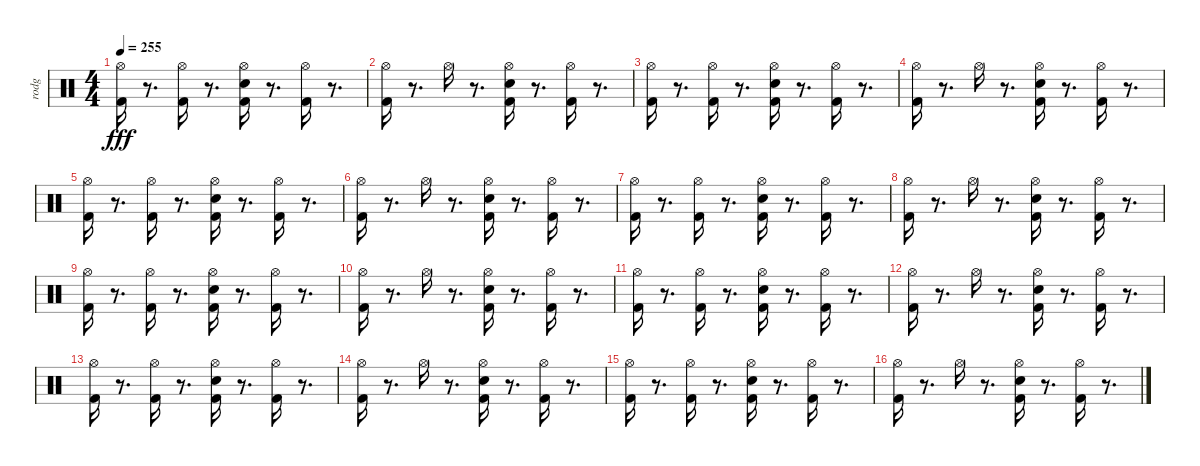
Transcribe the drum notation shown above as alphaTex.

\track ("rodg" "rodg") {instrument percussion}
\staff {score}
\articulation defaults
\ts (4 4)
\tempo 255
\clef neutral
\ks c
("Hi-Hat (open)" "Kick (hit) 2").16{dy fff} r.8{d} ("Kick (hit) 2" "Hi-Hat (open)").16 r.8{d} ("Kick (hit) 2" "Electric Snare (hit)" "Hi-Hat (open)").16 r.8{d} ("Kick (hit) 2" "Hi-Hat (open)").16 r.8{d} |
("Kick (hit) 2" "Hi-Hat (open)").16 r.8{d} "Hi-Hat (open)".16 r.8{d} ("Kick (hit) 2" "Electric Snare (hit)" "Hi-Hat (open)").16 r.8{d} ("Kick (hit) 2" "Hi-Hat (open)").16 r.8{d} |
("Hi-Hat (open)" "Kick (hit) 2").16 r.8{d} ("Kick (hit) 2" "Hi-Hat (open)").16 r.8{d} ("Kick (hit) 2" "Electric Snare (hit)" "Hi-Hat (open)").16 r.8{d} ("Kick (hit) 2" "Hi-Hat (open)").16 r.8{d} |
("Kick (hit) 2" "Hi-Hat (open)").16 r.8{d} "Hi-Hat (open)".16 r.8{d} ("Kick (hit) 2" "Electric Snare (hit)" "Hi-Hat (open)").16 r.8{d} ("Kick (hit) 2" "Hi-Hat (open)").16 r.8{d} |
("Hi-Hat (open)" "Kick (hit) 2").16 r.8{d} ("Kick (hit) 2" "Hi-Hat (open)").16 r.8{d} ("Kick (hit) 2" "Electric Snare (hit)" "Hi-Hat (open)").16 r.8{d} ("Kick (hit) 2" "Hi-Hat (open)").16 r.8{d} |
("Kick (hit) 2" "Hi-Hat (open)").16 r.8{d} "Hi-Hat (open)".16 r.8{d} ("Kick (hit) 2" "Electric Snare (hit)" "Hi-Hat (open)").16 r.8{d} ("Kick (hit) 2" "Hi-Hat (open)").16 r.8{d} |
("Hi-Hat (open)" "Kick (hit) 2").16 r.8{d} ("Kick (hit) 2" "Hi-Hat (open)").16 r.8{d} ("Kick (hit) 2" "Electric Snare (hit)" "Hi-Hat (open)").16 r.8{d} ("Kick (hit) 2" "Hi-Hat (open)").16 r.8{d} |
("Kick (hit) 2" "Hi-Hat (open)").16 r.8{d} "Hi-Hat (open)".16 r.8{d} ("Kick (hit) 2" "Electric Snare (hit)" "Hi-Hat (open)").16 r.8{d} ("Kick (hit) 2" "Hi-Hat (open)").16 r.8{d} |
("Hi-Hat (open)" "Kick (hit) 2").16 r.8{d} ("Kick (hit) 2" "Hi-Hat (open)").16 r.8{d} ("Kick (hit) 2" "Electric Snare (hit)" "Hi-Hat (open)").16 r.8{d} ("Kick (hit) 2" "Hi-Hat (open)").16 r.8{d} |
("Kick (hit) 2" "Hi-Hat (open)").16 r.8{d} "Hi-Hat (open)".16 r.8{d} ("Kick (hit) 2" "Electric Snare (hit)" "Hi-Hat (open)").16 r.8{d} ("Kick (hit) 2" "Hi-Hat (open)").16 r.8{d} |
("Hi-Hat (open)" "Kick (hit) 2").16 r.8{d} ("Kick (hit) 2" "Hi-Hat (open)").16 r.8{d} ("Kick (hit) 2" "Electric Snare (hit)" "Hi-Hat (open)").16 r.8{d} ("Kick (hit) 2" "Hi-Hat (open)").16 r.8{d} |
("Kick (hit) 2" "Hi-Hat (open)").16 r.8{d} "Hi-Hat (open)".16 r.8{d} ("Kick (hit) 2" "Electric Snare (hit)" "Hi-Hat (open)").16 r.8{d} ("Kick (hit) 2" "Hi-Hat (open)").16 r.8{d} |
("Hi-Hat (open)" "Kick (hit) 2").16 r.8{d} ("Kick (hit) 2" "Hi-Hat (open)").16 r.8{d} ("Kick (hit) 2" "Electric Snare (hit)" "Hi-Hat (open)").16 r.8{d} ("Kick (hit) 2" "Hi-Hat (open)").16 r.8{d} |
("Kick (hit) 2" "Hi-Hat (open)").16 r.8{d} "Hi-Hat (open)".16 r.8{d} ("Kick (hit) 2" "Electric Snare (hit)" "Hi-Hat (open)").16 r.8{d} ("Kick (hit) 2" "Hi-Hat (open)").16 r.8{d} |
("Hi-Hat (open)" "Kick (hit) 2").16 r.8{d} ("Kick (hit) 2" "Hi-Hat (open)").16 r.8{d} ("Kick (hit) 2" "Electric Snare (hit)" "Hi-Hat (open)").16 r.8{d} ("Kick (hit) 2" "Hi-Hat (open)").16 r.8{d} |
("Kick (hit) 2" "Hi-Hat (open)").16 r.8{d} "Hi-Hat (open)".16 r.8{d} ("Kick (hit) 2" "Electric Snare (hit)" "Hi-Hat (open)").16 r.8{d} ("Kick (hit) 2" "Hi-Hat (open)").16 r.8{d}
